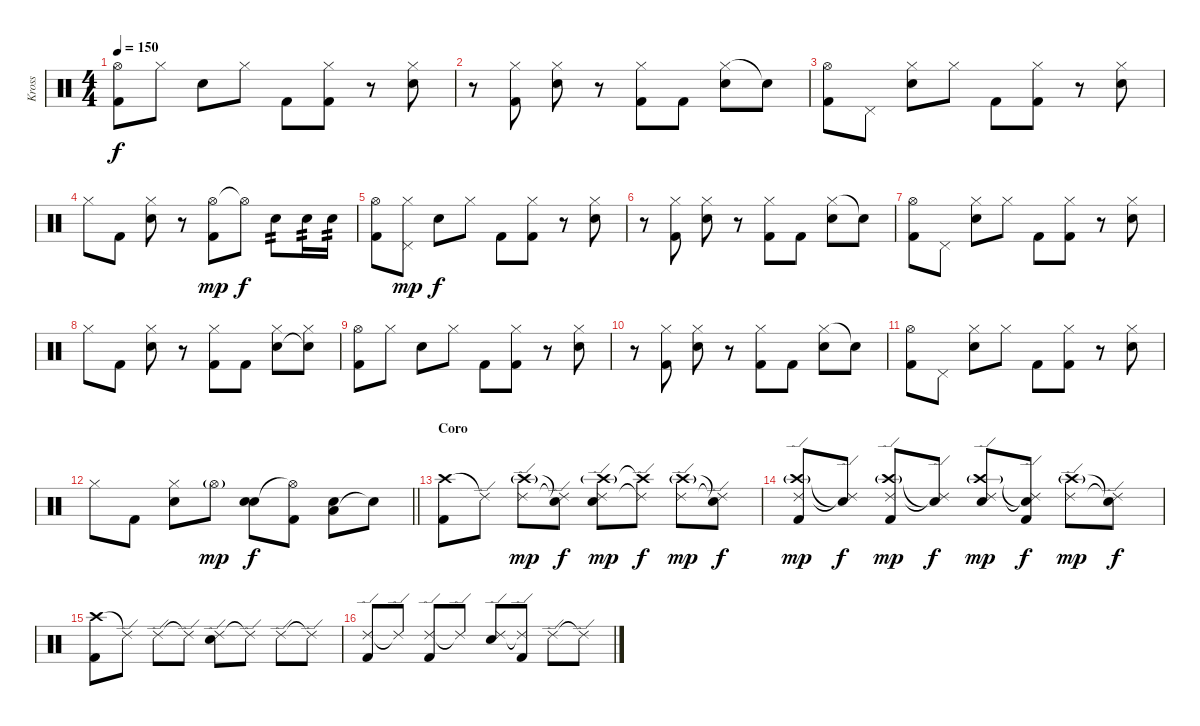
\track ("Kross" "Kross") {instrument percussion}
\staff {score}
\articulation defaults
\ts (4 4)
\tempo 150
\clef neutral
\ks c
("Hi-Hat (open)" "Kick (hit) 2").8{dy f} "Hi-Hat (closed)".8 "Electric Snare (hit)".8 "Hi-Hat (closed)".8 "Kick (hit) 2".8 ("Hi-Hat (closed)" "Kick (hit) 2").8 r.8 ("Hi-Hat (closed)" "Electric Snare (hit)").8 |
r.8 ("Hi-Hat (closed)" "Kick (hit) 2").8 ("Hi-Hat (closed)" "Electric Snare (hit)").8 r.8 ("Hi-Hat (closed)" "Kick (hit) 2").8 "Kick (hit) 2".8 ("Hi-Hat (closed)" "Electric Snare (hit)").8 "Snare (hit)"{t}.8 |
("Hi-Hat (open)" "Kick (hit) 2").8 "Pedal Hi-Hat (hit)".8 ("Hi-Hat (closed)" "Electric Snare (hit)").8 "Hi-Hat (closed)".8 "Kick (hit) 2".8 ("Hi-Hat (closed)" "Kick (hit) 2").8 r.8 ("Hi-Hat (closed)" "Electric Snare (hit)").8 |
"Hi-Hat (closed)".8 "Kick (hit) 2".8 ("Hi-Hat (closed)" "Electric Snare (hit)").8 r.8 ("Hi-Hat (open)" "Kick (hit) 2").8{dy mp} "Hi-Hat (open)"{t}.8{dy f} "Electric Snare (hit)".8{tp 2} "Electric Snare (hit)".16{tp 2} "Electric Snare (hit)".16{tp 2} |
("Hi-Hat (open)" "Kick (hit) 2").8 ("Hi-Hat (closed)" "Pedal Hi-Hat (hit)").8{dy mp} "Electric Snare (hit)".8{dy f} "Hi-Hat (closed)".8 "Kick (hit) 2".8 ("Hi-Hat (closed)" "Kick (hit) 2").8 r.8 ("Hi-Hat (closed)" "Electric Snare (hit)").8 |
r.8 ("Hi-Hat (closed)" "Kick (hit) 2").8 ("Hi-Hat (closed)" "Electric Snare (hit)").8 r.8 ("Hi-Hat (closed)" "Kick (hit) 2").8 "Kick (hit) 2".8 ("Hi-Hat (closed)" "Electric Snare (hit)").8 "Snare (hit)"{t}.8 |
("Hi-Hat (open)" "Kick (hit) 2").8 "Pedal Hi-Hat (hit)".8 ("Hi-Hat (closed)" "Electric Snare (hit)").8 "Hi-Hat (closed)".8 "Kick (hit) 2".8 ("Hi-Hat (closed)" "Kick (hit) 2").8 r.8 ("Hi-Hat (closed)" "Electric Snare (hit)").8 |
"Hi-Hat (closed)".8 "Kick (hit) 2".8 ("Hi-Hat (closed)" "Electric Snare (hit)").8 r.8 ("Hi-Hat (closed)" "Kick (hit) 2").8 "Kick (hit) 2".8 ("Hi-Hat (closed)" "Electric Snare (hit)").8 ("Hi-Hat (closed)" "Snare (hit)"{t}).8 |
("Hi-Hat (open)" "Kick (hit) 2").8 "Hi-Hat (closed)".8 "Electric Snare (hit)".8 "Hi-Hat (closed)".8 "Kick (hit) 2".8 ("Hi-Hat (closed)" "Kick (hit) 2").8 r.8 ("Hi-Hat (closed)" "Electric Snare (hit)").8 |
r.8 ("Hi-Hat (closed)" "Kick (hit) 2").8 ("Hi-Hat (closed)" "Electric Snare (hit)").8 r.8 ("Hi-Hat (closed)" "Kick (hit) 2").8 "Kick (hit) 2".8 ("Hi-Hat (closed)" "Electric Snare (hit)").8 "Snare (hit)"{t}.8 |
("Hi-Hat (open)" "Kick (hit) 2").8 "Pedal Hi-Hat (hit)".8 ("Hi-Hat (closed)" "Electric Snare (hit)").8 "Hi-Hat (closed)".8 "Kick (hit) 2".8 ("Hi-Hat (closed)" "Kick (hit) 2").8 r.8 ("Hi-Hat (closed)" "Electric Snare (hit)").8 |
\barLineRight lightlight "Hi-Hat (closed)".8 "Kick (hit) 2".8
("Hi-Hat (closed)" "Electric Snare (hit)").8 "Hi-Hat (open)"{g}.8{dy mp} ("Electric Snare (hit)" "Electric Snare (hit)").8{bd 480 dy f} ("Hi-Hat (open)"{t} "Kick (hit) 2").8 ("Low Floor Tom (hit)" "Electric Snare (hit)").8{bd 480} "Snare (hit)"{t}.8 |
\section ("" "Coro")
("Crash high (hit)" "Kick (hit) 2").8 "Ride (edge) 2"{t}.8 ("Crash high (hit)"{g} "Ride (edge) 2").8{dy mp} ("Snare (hit)"{t} "Ride (edge) 2"{t}).8{dy f} ("Crash high (hit)"{g} "Ride (edge) 2" "Electric Snare (hit)").8{dy mp} ("Crash high (hit)"{t} "Ride (edge) 2"{t}).8{dy f} ("Crash high (hit)"{g} "Ride (edge) 2").8{dy mp} ("Snare (hit)"{t} "Ride (edge) 2"{t}).8{dy f} |
("Crash high (hit)"{g} "Ride (edge) 2" "Kick (hit) 2").8{dy mp} ("Snare (hit)"{t} "Ride (edge) 2"{t}).8{dy f} ("Crash high (hit)"{g} "Ride (edge) 2" "Kick (hit) 2").8{dy mp} ("Snare (hit)"{t} "Ride (edge) 2"{t}).8{dy f} ("Crash high (hit)"{g} "Ride (edge) 2" "Electric Snare (hit)").8{dy mp} ("Snare (hit)"{t} "Ride (edge) 2"{t} "Kick (hit) 2").8{dy f} ("Crash high (hit)"{g} "Ride (edge) 2").8{dy mp} ("Snare (hit)"{t} "Ride (edge) 2"{t}).8{dy f} |
("Crash high (hit)" "Kick (hit) 2").8 "Ride (edge) 2"{t}.8 "Ride (edge) 2".8 "Ride (edge) 2"{t}.8 ("Ride (edge) 2" "Electric Snare (hit)").8 "Ride (edge) 2"{t}.8 "Ride (edge) 2".8 "Ride (edge) 2"{t}.8 |
("Ride (edge) 2" "Kick (hit) 2").8 "Ride (edge) 2"{t}.8 ("Ride (edge) 2" "Kick (hit) 2").8 "Ride (edge) 2"{t}.8 ("Ride (edge) 2" "Electric Snare (hit)").8 ("Ride (edge) 2"{t} "Kick (hit) 2").8 "Ride (edge) 2".8 "Ride (edge) 2"{t}.8
